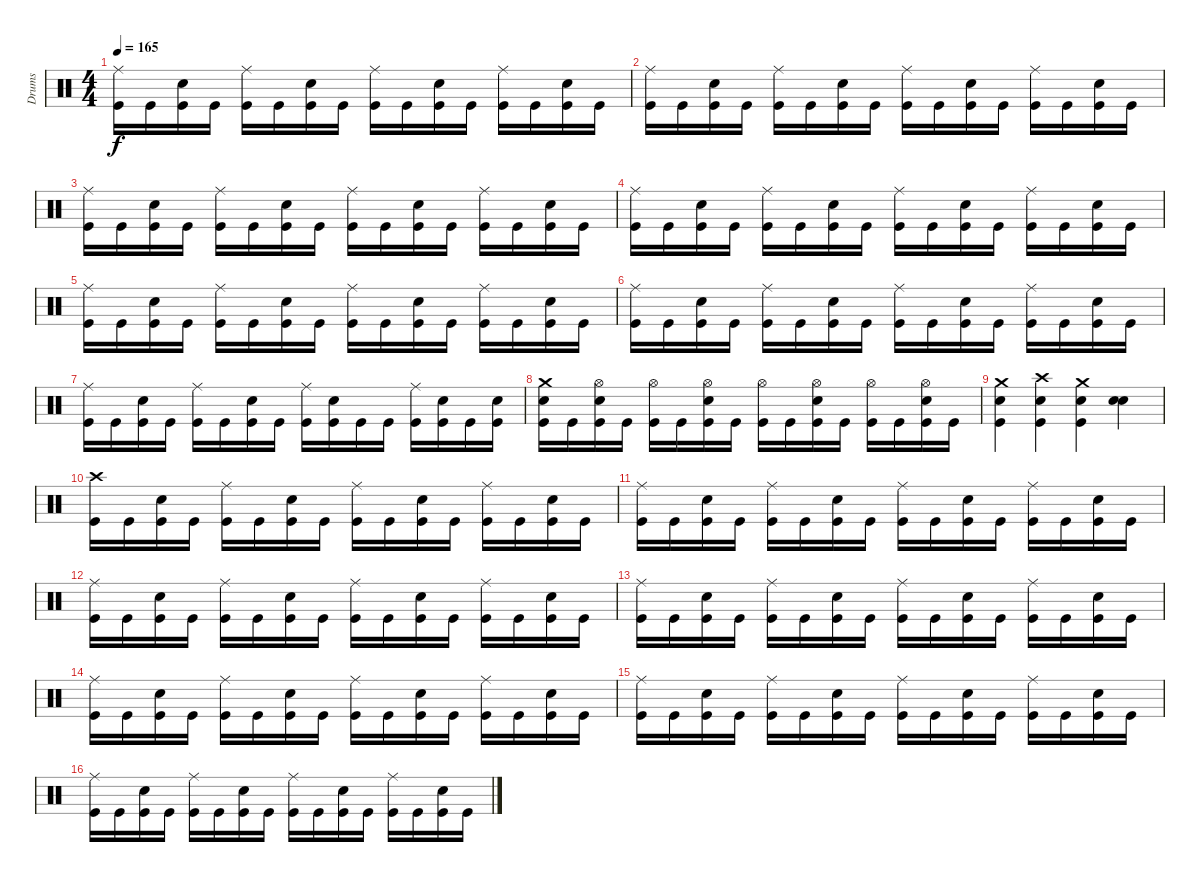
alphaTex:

\track ("Drums" "Drums") {instrument percussion}
\staff {score}
\articulation defaults
\ts (4 4)
\tempo 165
\clef neutral
\ks c
("Ride (middle)" "Kick (hit)").16{dy f} "Kick (hit)".16 ("Electric Snare (hit)" "Kick (hit)").16 "Kick (hit)".16 ("Ride (middle)" "Kick (hit)").16 "Kick (hit)".16 ("Electric Snare (hit)" "Kick (hit)").16 "Kick (hit)".16 ("Ride (middle)" "Kick (hit)").16 "Kick (hit)".16 ("Electric Snare (hit)" "Kick (hit)").16 "Kick (hit)".16 ("Ride (middle)" "Kick (hit)").16 "Kick (hit)".16 ("Electric Snare (hit)" "Kick (hit)").16 "Kick (hit)".16 |
("Ride (middle)" "Kick (hit)").16 "Kick (hit)".16 ("Electric Snare (hit)" "Kick (hit)").16 "Kick (hit)".16 ("Ride (middle)" "Kick (hit)").16 "Kick (hit)".16 ("Electric Snare (hit)" "Kick (hit)").16 "Kick (hit)".16 ("Ride (middle)" "Kick (hit)").16 "Kick (hit)".16 ("Electric Snare (hit)" "Kick (hit)").16 "Kick (hit)".16 ("Ride (middle)" "Kick (hit)").16 "Kick (hit)".16 ("Electric Snare (hit)" "Kick (hit)").16 "Kick (hit)".16 |
("Ride (middle)" "Kick (hit)").16 "Kick (hit)".16 ("Electric Snare (hit)" "Kick (hit)").16 "Kick (hit)".16 ("Ride (middle)" "Kick (hit)").16 "Kick (hit)".16 ("Electric Snare (hit)" "Kick (hit)").16 "Kick (hit)".16 ("Ride (middle)" "Kick (hit)").16 "Kick (hit)".16 ("Electric Snare (hit)" "Kick (hit)").16 "Kick (hit)".16 ("Ride (middle)" "Kick (hit)").16 "Kick (hit)".16 ("Electric Snare (hit)" "Kick (hit)").16 "Kick (hit)".16 |
("Ride (middle)" "Kick (hit)").16 "Kick (hit)".16 ("Electric Snare (hit)" "Kick (hit)").16 "Kick (hit)".16 ("Ride (middle)" "Kick (hit)").16 "Kick (hit)".16 ("Electric Snare (hit)" "Kick (hit)").16 "Kick (hit)".16 ("Ride (middle)" "Kick (hit)").16 "Kick (hit)".16 ("Electric Snare (hit)" "Kick (hit)").16 "Kick (hit)".16 ("Ride (middle)" "Kick (hit)").16 "Kick (hit)".16 ("Electric Snare (hit)" "Kick (hit)").16 "Kick (hit)".16 |
("Ride (middle)" "Kick (hit)").16 "Kick (hit)".16 ("Electric Snare (hit)" "Kick (hit)").16 "Kick (hit)".16 ("Ride (middle)" "Kick (hit)").16 "Kick (hit)".16 ("Electric Snare (hit)" "Kick (hit)").16 "Kick (hit)".16 ("Ride (middle)" "Kick (hit)").16 "Kick (hit)".16 ("Electric Snare (hit)" "Kick (hit)").16 "Kick (hit)".16 ("Ride (middle)" "Kick (hit)").16 "Kick (hit)".16 ("Electric Snare (hit)" "Kick (hit)").16 "Kick (hit)".16 |
("Ride (middle)" "Kick (hit)").16 "Kick (hit)".16 ("Electric Snare (hit)" "Kick (hit)").16 "Kick (hit)".16 ("Ride (middle)" "Kick (hit)").16 "Kick (hit)".16 ("Electric Snare (hit)" "Kick (hit)").16 "Kick (hit)".16 ("Ride (middle)" "Kick (hit)").16 "Kick (hit)".16 ("Electric Snare (hit)" "Kick (hit)").16 "Kick (hit)".16 ("Ride (middle)" "Kick (hit)").16 "Kick (hit)".16 ("Electric Snare (hit)" "Kick (hit)").16 "Kick (hit)".16 |
("Ride (middle)" "Kick (hit)").16 "Kick (hit)".16 ("Electric Snare (hit)" "Kick (hit)").16 "Kick (hit)".16 ("Ride (middle)" "Kick (hit)").16 "Kick (hit)".16 ("Electric Snare (hit)" "Kick (hit)").16 "Kick (hit)".16 ("Ride (middle)" "Kick (hit)").16 ("Electric Snare (hit)" "Kick (hit)").16 "Kick (hit)".16 "Kick (hit)".16 ("Ride (middle)" "Kick (hit)").16 ("Electric Snare (hit)" "Kick (hit)").16 "Kick (hit)".16 ("Electric Snare (hit)" "Kick (hit)").16 |
("Crash medium (hit)" "Electric Snare (hit)" "Kick (hit)").16 "Kick (hit)".16 ("Electric Snare (hit)" "Hi-Hat (open)" "Kick (hit)").16 "Kick (hit)".16 ("Hi-Hat (open)" "Kick (hit)").16 "Kick (hit)".16 ("Electric Snare (hit)" "Hi-Hat (open)" "Kick (hit)").16 "Kick (hit)".16 ("Hi-Hat (open)" "Kick (hit)").16 "Kick (hit)".16 ("Electric Snare (hit)" "Hi-Hat (open)" "Kick (hit)").16 "Kick (hit)".16 ("Hi-Hat (open)" "Kick (hit)").16 "Kick (hit)".16 ("Electric Snare (hit)" "Hi-Hat (open)" "Kick (hit)").16 "Kick (hit)".16 |
("Crash medium (hit)" "Electric Snare (hit)" "Kick (hit)").4 ("Kick (hit)" "Electric Snare (hit)" "Crash high (hit)").4 ("Kick (hit)" "Electric Snare (hit)" "Crash medium (hit)").4 ("Electric Snare (hit)" "Electric Snare (hit)").4 |
("Crash high (hit)" "Kick (hit)").16{volume 14 balance 8} "Kick (hit)".16 ("Electric Snare (hit)" "Kick (hit)").16 "Kick (hit)".16 ("Ride (middle)" "Kick (hit)").16 "Kick (hit)".16 ("Electric Snare (hit)" "Kick (hit)").16 "Kick (hit)".16 ("Ride (middle)" "Kick (hit)").16 "Kick (hit)".16 ("Electric Snare (hit)" "Kick (hit)").16 "Kick (hit)".16 ("Ride (middle)" "Kick (hit)").16 "Kick (hit)".16 ("Electric Snare (hit)" "Kick (hit)").16 "Kick (hit)".16 |
("Ride (middle)" "Kick (hit)").16 "Kick (hit)".16 ("Electric Snare (hit)" "Kick (hit)").16 "Kick (hit)".16 ("Ride (middle)" "Kick (hit)").16 "Kick (hit)".16 ("Electric Snare (hit)" "Kick (hit)").16 "Kick (hit)".16 ("Ride (middle)" "Kick (hit)").16 "Kick (hit)".16 ("Electric Snare (hit)" "Kick (hit)").16 "Kick (hit)".16 ("Ride (middle)" "Kick (hit)").16 "Kick (hit)".16 ("Electric Snare (hit)" "Kick (hit)").16 "Kick (hit)".16 |
("Ride (middle)" "Kick (hit)").16 "Kick (hit)".16 ("Electric Snare (hit)" "Kick (hit)").16 "Kick (hit)".16 ("Ride (middle)" "Kick (hit)").16 "Kick (hit)".16 ("Electric Snare (hit)" "Kick (hit)").16 "Kick (hit)".16 ("Ride (middle)" "Kick (hit)").16 "Kick (hit)".16 ("Electric Snare (hit)" "Kick (hit)").16 "Kick (hit)".16 ("Ride (middle)" "Kick (hit)").16 "Kick (hit)".16 ("Electric Snare (hit)" "Kick (hit)").16 "Kick (hit)".16 |
("Ride (middle)" "Kick (hit)").16 "Kick (hit)".16 ("Electric Snare (hit)" "Kick (hit)").16 "Kick (hit)".16 ("Ride (middle)" "Kick (hit)").16 "Kick (hit)".16 ("Electric Snare (hit)" "Kick (hit)").16 "Kick (hit)".16 ("Ride (middle)" "Kick (hit)").16 "Kick (hit)".16 ("Electric Snare (hit)" "Kick (hit)").16 "Kick (hit)".16 ("Ride (middle)" "Kick (hit)").16 "Kick (hit)".16 ("Electric Snare (hit)" "Kick (hit)").16 "Kick (hit)".16 |
("Ride (middle)" "Kick (hit)").16 "Kick (hit)".16 ("Electric Snare (hit)" "Kick (hit)").16 "Kick (hit)".16 ("Ride (middle)" "Kick (hit)").16 "Kick (hit)".16 ("Electric Snare (hit)" "Kick (hit)").16 "Kick (hit)".16 ("Ride (middle)" "Kick (hit)").16 "Kick (hit)".16 ("Electric Snare (hit)" "Kick (hit)").16 "Kick (hit)".16 ("Ride (middle)" "Kick (hit)").16 "Kick (hit)".16 ("Electric Snare (hit)" "Kick (hit)").16 "Kick (hit)".16 |
("Ride (middle)" "Kick (hit)").16 "Kick (hit)".16 ("Electric Snare (hit)" "Kick (hit)").16 "Kick (hit)".16 ("Ride (middle)" "Kick (hit)").16 "Kick (hit)".16 ("Electric Snare (hit)" "Kick (hit)").16 "Kick (hit)".16 ("Ride (middle)" "Kick (hit)").16 "Kick (hit)".16 ("Electric Snare (hit)" "Kick (hit)").16 "Kick (hit)".16 ("Ride (middle)" "Kick (hit)").16 "Kick (hit)".16 ("Electric Snare (hit)" "Kick (hit)").16 "Kick (hit)".16 |
("Ride (middle)" "Kick (hit)").16 "Kick (hit)".16 ("Electric Snare (hit)" "Kick (hit)").16 "Kick (hit)".16 ("Ride (middle)" "Kick (hit)").16 "Kick (hit)".16 ("Electric Snare (hit)" "Kick (hit)").16 "Kick (hit)".16 ("Ride (middle)" "Kick (hit)").16 "Kick (hit)".16 ("Electric Snare (hit)" "Kick (hit)").16 "Kick (hit)".16 ("Ride (middle)" "Kick (hit)").16 "Kick (hit)".16 ("Electric Snare (hit)" "Kick (hit)").16 "Kick (hit)".16
